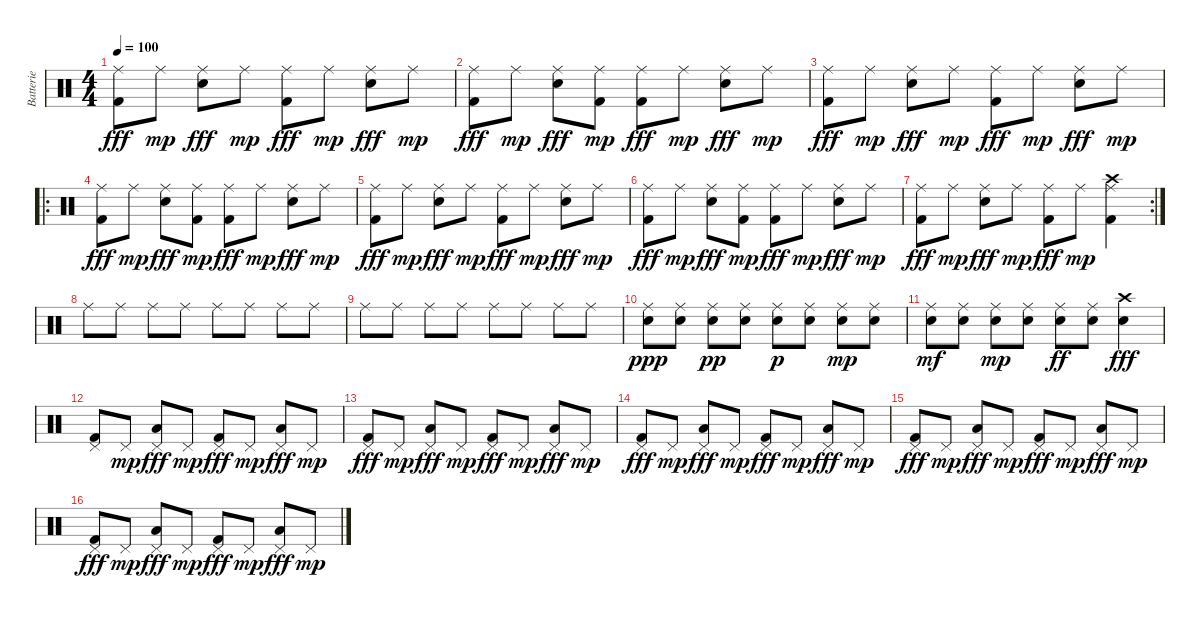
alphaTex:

\track ("Batterie" "Batterie") {instrument percussion}
\staff {score}
\articulation defaults
\ts (4 4)
\tempo 100
\clef neutral
\ks c
("Ride (middle)" "Kick (hit) 2").8{dy fff} "Ride (middle)".8{dy mp} ("Ride (middle)" "Electric Snare (hit)").8{dy fff} "Ride (middle)".8{dy mp} ("Ride (middle)" "Kick (hit) 2").8{dy fff} "Ride (middle)".8{dy mp} ("Ride (middle)" "Electric Snare (hit)").8{dy fff} "Ride (middle)".8{dy mp} |
("Ride (middle)" "Kick (hit) 2").8{dy fff} "Ride (middle)".8{dy mp} ("Ride (middle)" "Electric Snare (hit)").8{dy fff} ("Ride (middle)" "Kick (hit) 2").8{dy mp} ("Ride (middle)" "Kick (hit) 2").8{dy fff} "Ride (middle)".8{dy mp} ("Ride (middle)" "Electric Snare (hit)").8{dy fff} "Ride (middle)".8{dy mp} |
("Ride (middle)" "Kick (hit) 2").8{dy fff} "Ride (middle)".8{dy mp} ("Ride (middle)" "Electric Snare (hit)").8{dy fff} "Ride (middle)".8{dy mp} ("Ride (middle)" "Kick (hit) 2").8{dy fff} "Ride (middle)".8{dy mp} ("Ride (middle)" "Electric Snare (hit)").8{dy fff} "Ride (middle)".8{dy mp} |
\ro
("Ride (middle)" "Kick (hit) 2").8{dy fff} "Ride (middle)".8{dy mp} ("Ride (middle)" "Electric Snare (hit)").8{dy fff} ("Ride (middle)" "Kick (hit) 2").8{dy mp} ("Ride (middle)" "Kick (hit) 2").8{dy fff} "Ride (middle)".8{dy mp} ("Ride (middle)" "Electric Snare (hit)").8{dy fff} "Ride (middle)".8{dy mp} |
("Ride (middle)" "Kick (hit) 2").8{dy fff} "Ride (middle)".8{dy mp} ("Ride (middle)" "Electric Snare (hit)").8{dy fff} "Ride (middle)".8{dy mp} ("Ride (middle)" "Kick (hit) 2").8{dy fff} "Ride (middle)".8{dy mp} ("Ride (middle)" "Electric Snare (hit)").8{dy fff} "Ride (middle)".8{dy mp} |
("Ride (middle)" "Kick (hit) 2").8{dy fff} "Ride (middle)".8{dy mp} ("Ride (middle)" "Electric Snare (hit)").8{dy fff} ("Ride (middle)" "Kick (hit) 2").8{dy mp} ("Ride (middle)" "Kick (hit) 2").8{dy fff} "Ride (middle)".8{dy mp} ("Ride (middle)" "Electric Snare (hit)").8{dy fff} "Ride (middle)".8{dy mp} |
\rc 2
("Ride (middle)" "Kick (hit) 2").8{dy fff} "Ride (middle)".8{dy mp} ("Ride (middle)" "Electric Snare (hit)").8{dy fff} "Ride (middle)".8{dy mp} ("Ride (middle)" "Kick (hit) 2").8{dy fff} "Ride (middle)".8{dy mp} ("Ride (middle)" "Kick (hit) 2" "Crash high (hit)").4 |
"Ride (middle)".8 "Ride (middle)".8 "Ride (middle)".8 "Ride (middle)".8 "Ride (middle)".8 "Ride (middle)".8 "Ride (middle)".8 "Ride (middle)".8 |
"Ride (middle)".8 "Ride (middle)".8 "Ride (middle)".8 "Ride (middle)".8 "Ride (middle)".8 "Ride (middle)".8 "Ride (middle)".8 "Ride (middle)".8 |
("Ride (middle)" "Electric Snare (hit)").8{dy ppp} ("Ride (middle)" "Electric Snare (hit)").8 ("Ride (middle)" "Electric Snare (hit)").8{dy pp} ("Ride (middle)" "Electric Snare (hit)").8 ("Ride (middle)" "Electric Snare (hit)").8{dy p} ("Ride (middle)" "Electric Snare (hit)").8 ("Ride (middle)" "Electric Snare (hit)").8{dy mp} ("Ride (middle)" "Electric Snare (hit)").8 |
("Ride (middle)" "Electric Snare (hit)").8{dy mf} ("Ride (middle)" "Electric Snare (hit)").8 ("Ride (middle)" "Electric Snare (hit)").8{dy mp} ("Ride (middle)" "Electric Snare (hit)").8 ("Ride (middle)" "Electric Snare (hit)").8{dy ff} ("Ride (middle)" "Electric Snare (hit)").8 ("Crash high (hit)" "Electric Snare (hit)").4{dy fff} |
("Pedal Hi-Hat (hit)" "Kick (hit) 2").8 "Pedal Hi-Hat (hit)".8{dy mp} ("Pedal Hi-Hat (hit)" "Low Tom (hit)").8{dy fff} "Pedal Hi-Hat (hit)".8{dy mp} ("Pedal Hi-Hat (hit)" "Kick (hit) 2").8{dy fff} "Pedal Hi-Hat (hit)".8{dy mp} ("Pedal Hi-Hat (hit)" "Low Tom (hit)").8{dy fff} "Pedal Hi-Hat (hit)".8{dy mp} |
("Pedal Hi-Hat (hit)" "Kick (hit) 2").8{dy fff} "Pedal Hi-Hat (hit)".8{dy mp} ("Pedal Hi-Hat (hit)" "Low Tom (hit)").8{dy fff} "Pedal Hi-Hat (hit)".8{dy mp} ("Pedal Hi-Hat (hit)" "Kick (hit) 2").8{dy fff} "Pedal Hi-Hat (hit)".8{dy mp} ("Pedal Hi-Hat (hit)" "Low Tom (hit)").8{dy fff} "Pedal Hi-Hat (hit)".8{dy mp} |
("Pedal Hi-Hat (hit)" "Kick (hit) 2").8{dy fff} "Pedal Hi-Hat (hit)".8{dy mp} ("Pedal Hi-Hat (hit)" "Low Tom (hit)").8{dy fff} "Pedal Hi-Hat (hit)".8{dy mp} ("Pedal Hi-Hat (hit)" "Kick (hit) 2").8{dy fff} "Pedal Hi-Hat (hit)".8{dy mp} ("Pedal Hi-Hat (hit)" "Low Tom (hit)").8{dy fff} "Pedal Hi-Hat (hit)".8{dy mp} |
("Pedal Hi-Hat (hit)" "Kick (hit) 2").8{dy fff} "Pedal Hi-Hat (hit)".8{dy mp} ("Pedal Hi-Hat (hit)" "Low Tom (hit)").8{dy fff} "Pedal Hi-Hat (hit)".8{dy mp} ("Pedal Hi-Hat (hit)" "Kick (hit) 2").8{dy fff} "Pedal Hi-Hat (hit)".8{dy mp} ("Pedal Hi-Hat (hit)" "Low Tom (hit)").8{dy fff} "Pedal Hi-Hat (hit)".8{dy mp} |
("Pedal Hi-Hat (hit)" "Kick (hit) 2").8{dy fff} "Pedal Hi-Hat (hit)".8{dy mp} ("Pedal Hi-Hat (hit)" "Low Tom (hit)").8{dy fff} "Pedal Hi-Hat (hit)".8{dy mp} ("Pedal Hi-Hat (hit)" "Kick (hit) 2").8{dy fff} "Pedal Hi-Hat (hit)".8{dy mp} ("Pedal Hi-Hat (hit)" "Low Tom (hit)").8{dy fff} "Pedal Hi-Hat (hit)".8{dy mp}
